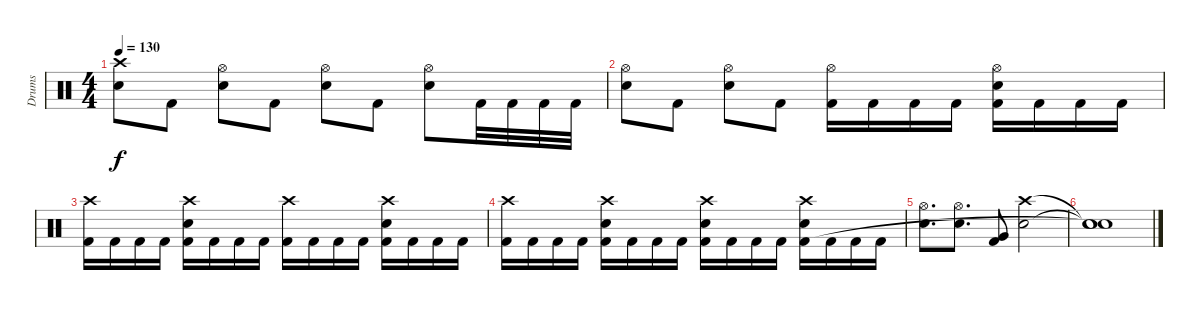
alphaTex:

\track ("Drums" "Drums") {instrument percussion}
\staff {score}
\articulation defaults
\ts (4 4)
\tempo 130
\clef neutral
\ks c
("Crash high (hit)" "Electric Snare (hit)").8{dy f} "Kick (hit) 2".8 ("Hi-Hat (open)" "Electric Snare (hit)").8 "Kick (hit) 2".8 ("Hi-Hat (open)" "Electric Snare (hit)").8 "Kick (hit) 2".8 ("Hi-Hat (open)" "Electric Snare (hit)").8 "Kick (hit) 2".32 "Kick (hit) 2".32 "Kick (hit) 2".32 "Kick (hit) 2".32 |
("Hi-Hat (open)" "Electric Snare (hit)").8 "Kick (hit) 2".8 ("Hi-Hat (open)" "Electric Snare (hit)").8 "Kick (hit) 2".8 ("Hi-Hat (open)" "Kick (hit) 2").16 "Kick (hit) 2".16 "Kick (hit) 2".16 "Kick (hit) 2".16 ("Hi-Hat (open)" "Electric Snare (hit)" "Kick (hit) 2").16 "Kick (hit) 2".16 "Kick (hit) 2".16 "Kick (hit) 2".16 |
("Crash high (hit)" "Kick (hit) 2").16 "Kick (hit) 2".16 "Kick (hit) 2".16 "Kick (hit) 2".16 ("Crash high (hit)" "Electric Snare (hit)" "Kick (hit) 2").16 "Kick (hit) 2".16 "Kick (hit) 2".16 "Kick (hit) 2".16 ("Crash high (hit)" "Kick (hit) 2").16 "Kick (hit) 2".16 "Kick (hit) 2".16 "Kick (hit) 2".16 ("Crash high (hit)" "Electric Snare (hit)" "Kick (hit) 2").16 "Kick (hit) 2".16 "Kick (hit) 2".16 "Kick (hit) 2".16 |
("Crash high (hit)" "Kick (hit) 2").16 "Kick (hit) 2".16 "Kick (hit) 2".16 "Kick (hit) 2".16 ("Crash high (hit)" "Electric Snare (hit)" "Kick (hit) 2").16 "Kick (hit) 2".16 "Kick (hit) 2".16 "Kick (hit) 2".16 ("Crash high (hit)" "Electric Snare (hit)" "Kick (hit) 2").16 "Kick (hit) 2".16 "Kick (hit) 2".16 "Kick (hit) 2".16 ("Crash high (hit)" "Electric Snare (hit)" "Kick (hit) 2").16 "Kick (hit) 2".16 "Kick (hit) 2".16 "Kick (hit) 2".16 |
("Hi-Hat (open)" "Electric Snare (hit)").8{d} ("Hi-Hat (open)" "Electric Snare (hit)").8{d} ("Very Low Tom (hit)" "Kick (hit) 2").8 ("Crash high (hit)" "Electric Snare (hit)").2 |
("Snare (hit)"{t} "Snare (hit)"{t} "Snare (hit)"{t}).1
